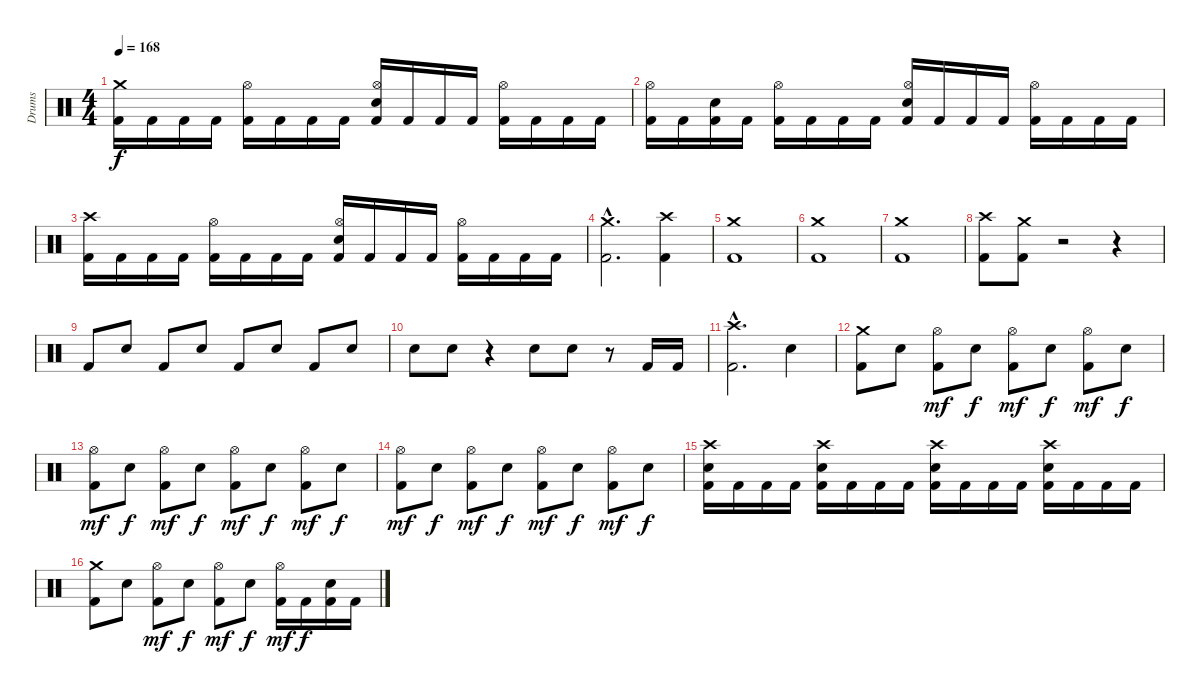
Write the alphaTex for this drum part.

\track ("Drums" "Drums") {instrument percussion}
\staff {score}
\articulation defaults
\ts (4 4)
\tempo 168
\clef neutral
\ks c
("Kick (hit) 2" "Crash medium (hit)").16{dy f} "Kick (hit) 2".16 "Kick (hit) 2".16 "Kick (hit) 2".16 ("Kick (hit) 2" "Hi-Hat (open)").16 "Kick (hit) 2".16 "Kick (hit) 2".16 "Kick (hit) 2".16 ("Kick (hit) 2" "Electric Snare (hit)" "Hi-Hat (open)").16 "Kick (hit) 2".16 "Kick (hit) 2".16 "Kick (hit) 2".16 ("Kick (hit) 2" "Hi-Hat (open)").16 "Kick (hit) 2".16 "Kick (hit) 2".16 "Kick (hit) 2".16 |
("Kick (hit) 2" "Hi-Hat (open)").16 "Kick (hit) 2".16 ("Kick (hit) 2" "Electric Snare (hit)").16 "Kick (hit) 2".16 ("Kick (hit) 2" "Hi-Hat (open)").16 "Kick (hit) 2".16 "Kick (hit) 2".16 "Kick (hit) 2".16 ("Kick (hit) 2" "Electric Snare (hit)" "Hi-Hat (open)").16 "Kick (hit) 2".16 "Kick (hit) 2".16 "Kick (hit) 2".16 ("Kick (hit) 2" "Hi-Hat (open)").16 "Kick (hit) 2".16 "Kick (hit) 2".16 "Kick (hit) 2".16 |
("Kick (hit) 2" "Crash high (hit)").16 "Kick (hit) 2".16 "Kick (hit) 2".16 "Kick (hit) 2".16 ("Kick (hit) 2" "Hi-Hat (open)").16 "Kick (hit) 2".16 "Kick (hit) 2".16 "Kick (hit) 2".16 ("Kick (hit) 2" "Electric Snare (hit)" "Hi-Hat (open)").16 "Kick (hit) 2".16 "Kick (hit) 2".16 "Kick (hit) 2".16 ("Kick (hit) 2" "Hi-Hat (open)").16 "Kick (hit) 2".16 "Kick (hit) 2".16 "Kick (hit) 2".16 |
("Kick (hit) 2"{hac} "Crash medium (hit)"{hac}).2{d} ("Kick (hit) 2" "Crash high (hit)").4 |
("Kick (hit) 2" "Crash medium (hit)").1 |
("Kick (hit) 2" "Crash medium (hit)").1 |
\section ("" "")
("Kick (hit) 2" "Crash medium (hit)").1 |
("Kick (hit) 2" "Crash high (hit)").8 ("Kick (hit) 2" "Crash medium (hit)").8 r.2 r.4 |
"Kick (hit) 2".8 "Electric Snare (hit)".8 "Kick (hit) 2".8 "Electric Snare (hit)".8 "Kick (hit) 2".8 "Electric Snare (hit)".8 "Kick (hit) 2".8 "Electric Snare (hit)".8 |
"Electric Snare (hit)".8 "Electric Snare (hit)".8 r.4 "Electric Snare (hit)".8 "Electric Snare (hit)".8 r.8 "Kick (hit) 2".16 "Kick (hit) 2".16 |
("Kick (hit) 2"{hac} "Crash high (hit)"{hac}).2{d} "Electric Snare (hit)".4 |
\section ("" "")
("Kick (hit) 2" "Crash medium (hit)").8 "Electric Snare (hit)".8 ("Kick (hit) 2" "Hi-Hat (open)").8{dy mf} "Electric Snare (hit)".8{dy f} ("Kick (hit) 2" "Hi-Hat (open)").8{dy mf} "Electric Snare (hit)".8{dy f} ("Kick (hit) 2" "Hi-Hat (open)").8{dy mf} "Electric Snare (hit)".8{dy f} |
("Kick (hit) 2" "Hi-Hat (open)").8{dy mf} "Electric Snare (hit)".8{dy f} ("Kick (hit) 2" "Hi-Hat (open)").8{dy mf} "Electric Snare (hit)".8{dy f} ("Kick (hit) 2" "Hi-Hat (open)").8{dy mf} "Electric Snare (hit)".8{dy f} ("Kick (hit) 2" "Hi-Hat (open)").8{dy mf} "Electric Snare (hit)".8{dy f} |
("Kick (hit) 2" "Hi-Hat (open)").8{dy mf} "Electric Snare (hit)".8{dy f} ("Kick (hit) 2" "Hi-Hat (open)").8{dy mf} "Electric Snare (hit)".8{dy f} ("Kick (hit) 2" "Hi-Hat (open)").8{dy mf} "Electric Snare (hit)".8{dy f} ("Kick (hit) 2" "Hi-Hat (open)").8{dy mf} "Electric Snare (hit)".8{dy f} |
("Kick (hit) 2" "Electric Snare (hit)" "Crash high (hit)").16 "Kick (hit) 2".16 "Kick (hit) 2".16 "Kick (hit) 2".16 ("Kick (hit) 2" "Electric Snare (hit)" "Crash high (hit)").16 "Kick (hit) 2".16 "Kick (hit) 2".16 "Kick (hit) 2".16 ("Kick (hit) 2" "Electric Snare (hit)" "Crash high (hit)").16 "Kick (hit) 2".16 "Kick (hit) 2".16 "Kick (hit) 2".16 ("Kick (hit) 2" "Electric Snare (hit)" "Crash high (hit)").16 "Kick (hit) 2".16 "Kick (hit) 2".16 "Kick (hit) 2".16 |
("Kick (hit) 2" "Crash medium (hit)").8 "Electric Snare (hit)".8 ("Kick (hit) 2" "Hi-Hat (open)").8{dy mf} "Electric Snare (hit)".8{dy f} ("Kick (hit) 2" "Hi-Hat (open)").8{dy mf} "Electric Snare (hit)".8{dy f} ("Kick (hit) 2" "Hi-Hat (open)").16{dy mf} "Kick (hit) 2".16{dy f} ("Kick (hit) 2" "Electric Snare (hit)").16 "Kick (hit) 2".16
